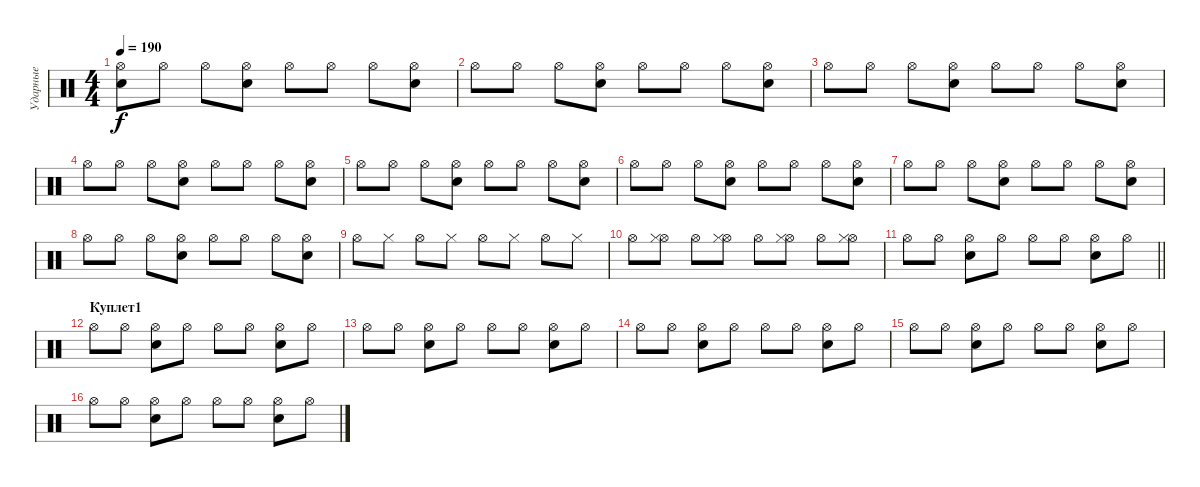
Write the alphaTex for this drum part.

\track ("Ударные" "Ударные") {instrument percussion}
\staff {score}
\articulation defaults
\ts (4 4)
\tempo 190
\clef neutral
\ks c
("Hi-Hat (open)" "Electric Snare (hit)").8{dy f} "Hi-Hat (open)".8 "Hi-Hat (open)".8 ("Hi-Hat (open)" "Electric Snare (hit)").8 "Hi-Hat (open)".8 "Hi-Hat (open)".8 "Hi-Hat (open)".8 ("Hi-Hat (open)" "Electric Snare (hit)").8 |
"Hi-Hat (open)".8 "Hi-Hat (open)".8 "Hi-Hat (open)".8 ("Hi-Hat (open)" "Electric Snare (hit)").8 "Hi-Hat (open)".8 "Hi-Hat (open)".8 "Hi-Hat (open)".8 ("Hi-Hat (open)" "Electric Snare (hit)").8 |
"Hi-Hat (open)".8 "Hi-Hat (open)".8 "Hi-Hat (open)".8 ("Hi-Hat (open)" "Electric Snare (hit)").8 "Hi-Hat (open)".8 "Hi-Hat (open)".8 "Hi-Hat (open)".8 ("Hi-Hat (open)" "Electric Snare (hit)").8 |
"Hi-Hat (open)".8 "Hi-Hat (open)".8 "Hi-Hat (open)".8 ("Hi-Hat (open)" "Electric Snare (hit)").8 "Hi-Hat (open)".8 "Hi-Hat (open)".8 "Hi-Hat (open)".8 ("Hi-Hat (open)" "Electric Snare (hit)").8 |
"Hi-Hat (open)".8 "Hi-Hat (open)".8 "Hi-Hat (open)".8 ("Hi-Hat (open)" "Electric Snare (hit)").8 "Hi-Hat (open)".8 "Hi-Hat (open)".8 "Hi-Hat (open)".8 ("Hi-Hat (open)" "Electric Snare (hit)").8 |
"Hi-Hat (open)".8 "Hi-Hat (open)".8 "Hi-Hat (open)".8 ("Hi-Hat (open)" "Electric Snare (hit)").8 "Hi-Hat (open)".8 "Hi-Hat (open)".8 "Hi-Hat (open)".8 ("Hi-Hat (open)" "Electric Snare (hit)").8 |
"Hi-Hat (open)".8 "Hi-Hat (open)".8 "Hi-Hat (open)".8 ("Hi-Hat (open)" "Electric Snare (hit)").8 "Hi-Hat (open)".8 "Hi-Hat (open)".8 "Hi-Hat (open)".8 ("Hi-Hat (open)" "Electric Snare (hit)").8 |
"Hi-Hat (open)".8 "Hi-Hat (open)".8 "Hi-Hat (open)".8 ("Hi-Hat (open)" "Electric Snare (hit)").8 "Hi-Hat (open)".8 "Hi-Hat (open)".8 "Hi-Hat (open)".8 ("Hi-Hat (open)" "Electric Snare (hit)").8 |
"Hi-Hat (open)".8 "Hi-Hat (closed)".8 "Hi-Hat (open)".8 "Hi-Hat (closed)".8 "Hi-Hat (open)".8 "Hi-Hat (closed)".8 "Hi-Hat (open)".8 "Hi-Hat (closed)".8 |
"Hi-Hat (open)".8 ("Hi-Hat (open)" "Hi-Hat (closed)").8 "Hi-Hat (open)".8 ("Hi-Hat (open)" "Hi-Hat (closed)").8 "Hi-Hat (open)".8 ("Hi-Hat (open)" "Hi-Hat (closed)").8 "Hi-Hat (open)".8 ("Hi-Hat (open)" "Hi-Hat (closed)").8 |
\barLineRight lightlight "Hi-Hat (open)".8 "Hi-Hat (open)".8
("Hi-Hat (open)" "Electric Snare (hit)").8 "Hi-Hat (open)".8 "Hi-Hat (open)".8 "Hi-Hat (open)".8 ("Hi-Hat (open)" "Electric Snare (hit)").8 "Hi-Hat (open)".8 |
\section ("" "Куплет1")
"Hi-Hat (open)".8 "Hi-Hat (open)".8 ("Hi-Hat (open)" "Electric Snare (hit)").8 "Hi-Hat (open)".8 "Hi-Hat (open)".8 "Hi-Hat (open)".8 ("Hi-Hat (open)" "Electric Snare (hit)").8 "Hi-Hat (open)".8 |
"Hi-Hat (open)".8 "Hi-Hat (open)".8 ("Hi-Hat (open)" "Electric Snare (hit)").8 "Hi-Hat (open)".8 "Hi-Hat (open)".8 "Hi-Hat (open)".8 ("Hi-Hat (open)" "Electric Snare (hit)").8 "Hi-Hat (open)".8 |
"Hi-Hat (open)".8 "Hi-Hat (open)".8 ("Hi-Hat (open)" "Electric Snare (hit)").8 "Hi-Hat (open)".8 "Hi-Hat (open)".8 "Hi-Hat (open)".8 ("Hi-Hat (open)" "Electric Snare (hit)").8 "Hi-Hat (open)".8 |
"Hi-Hat (open)".8 "Hi-Hat (open)".8 ("Hi-Hat (open)" "Electric Snare (hit)").8 "Hi-Hat (open)".8 "Hi-Hat (open)".8 "Hi-Hat (open)".8 ("Hi-Hat (open)" "Electric Snare (hit)").8 "Hi-Hat (open)".8 |
"Hi-Hat (open)".8 "Hi-Hat (open)".8 ("Hi-Hat (open)" "Electric Snare (hit)").8 "Hi-Hat (open)".8 "Hi-Hat (open)".8 "Hi-Hat (open)".8 ("Hi-Hat (open)" "Electric Snare (hit)").8 "Hi-Hat (open)".8
